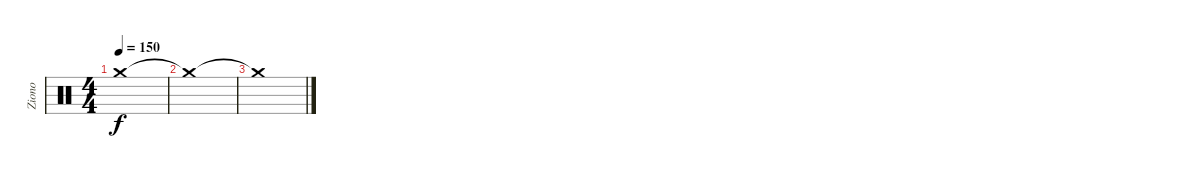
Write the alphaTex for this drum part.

\track ("Ziono" "Ziono") {instrument percussion}
\staff {score}
\articulation defaults
\ts (4 4)
\tempo 150
\clef neutral
\ks c "Crash medium (hit)".1{dy f}
|
"Crash medium (hit)"{t}.1 |
"Crash medium (hit)"{t}.1
